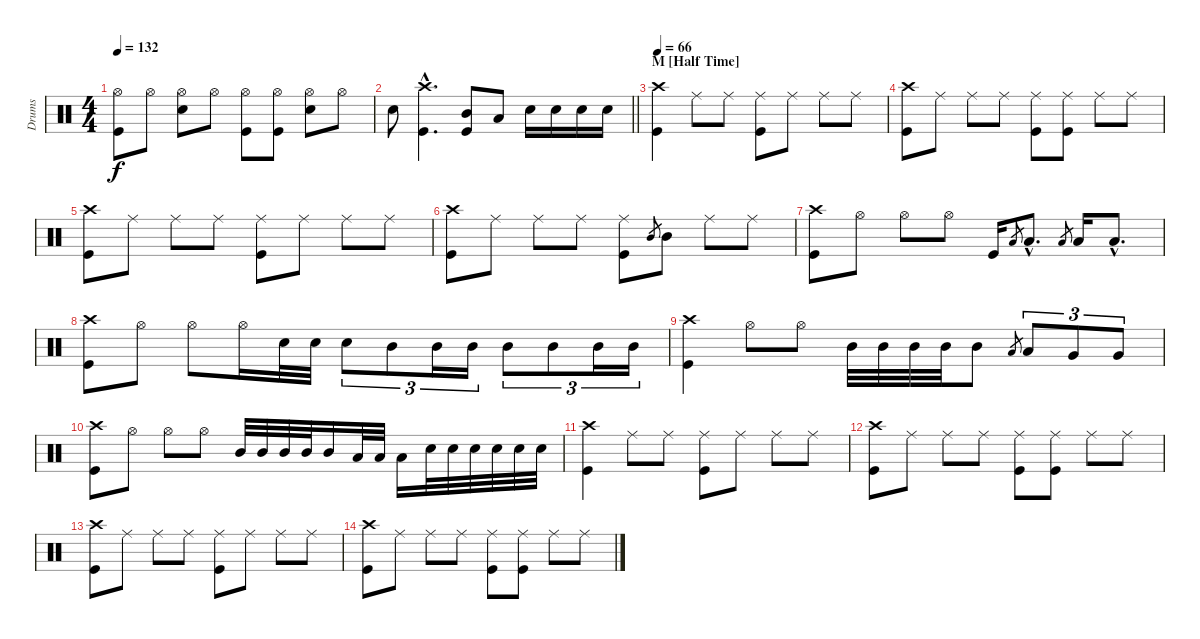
\track ("Drums" "Drums") {instrument percussion}
\staff {score}
\articulation defaults
\ts (4 4)
\tempo 132
\clef neutral
\ks c
("Hi-Hat (open)" "Kick (hit)").8{dy f} "Hi-Hat (open)".8 ("Hi-Hat (open)" "Electric Snare (hit)").8 "Hi-Hat (open)".8 ("Hi-Hat (open)" "Kick (hit)").8 ("Hi-Hat (open)" "Kick (hit)").8 ("Hi-Hat (open)" "Electric Snare (hit)").8 "Hi-Hat (open)".8 |
\barLineRight lightlight "Electric Snare (hit)".8
("Crash high (hit)"{hac} "Kick (hit)"{hac}).4{d} ("Mid Tom (hit)" "Kick (hit)").8 "Low Tom (hit)".8 "Electric Snare (hit)".16 "Electric Snare (hit)".16 "Electric Snare (hit)".16 "Electric Snare (hit)".16 |
\section ("" "M [Half Time]")
\tempo 66
("Crash high (hit)" "Kick (hit)").4 "Ride (middle)".8 "Ride (middle)".8 ("Ride (middle)" "Kick (hit)").8 "Ride (middle)".8 "Ride (middle)".8 "Ride (middle)".8 |
("Crash high (hit)" "Kick (hit)").8 "Ride (middle)".8 "Ride (middle)".8 "Ride (middle)".8 ("Ride (middle)" "Kick (hit)").8 ("Ride (middle)" "Kick (hit)").8 "Ride (middle)".8 "Ride (middle)".8 |
("Crash high (hit)" "Kick (hit)").8 "Ride (middle)".8 "Ride (middle)".8 "Ride (middle)".8 ("Ride (middle)" "Kick (hit)").8 "Ride (middle)".8 "Ride (middle)".8 "Ride (middle)".8 |
("Crash high (hit)" "Kick (hit)").8 "Ride (middle)".8 "Ride (middle)".8 "Ride (middle)".8 ("Ride (middle)" "Kick (hit)").8 "Mid Tom (hit)".8{gr} "Mid Tom (hit)".8 "Ride (middle)".8 "Ride (middle)".8 |
("Crash high (hit)" "Kick (hit)").8 "Hi-Hat (open)".8 "Hi-Hat (open)".8 "Hi-Hat (open)".8 "Kick (hit)".16 "Low Tom (hit)".8{gr} "Low Tom (hit)"{hac}.8{d} "Low Floor Tom (hit)".8{gr} "Low Floor Tom (hit)".16 "Low Floor Tom (hit)"{hac}.8{d} |
("Crash high (hit)" "Kick (hit)").8 "Hi-Hat (open)".8 "Hi-Hat (open)".8 "Hi-Hat (open)".16 "Electric Snare (hit)".32 "Electric Snare (hit)".32 "Electric Snare (hit)".8{tu (3 2)} "Mid Tom (hit)".8{tu (3 2)} "Mid Tom (hit)".16{tu (3 2)} "Mid Tom (hit)".16{tu (3 2)} "Mid Tom (hit)".8{tu (3 2)} "Mid Tom (hit)".8{tu (3 2)} "Mid Tom (hit)".16{tu (3 2)} "Mid Tom (hit)".16{tu (3 2)} |
("Crash high (hit)" "Kick (hit)").4 "Hi-Hat (open)".8 "Hi-Hat (open)".8 "Mid Tom (hit)".32 "Mid Tom (hit)".32 "Mid Tom (hit)".32 "Mid Tom (hit)".32 "Mid Tom (hit)".8 "Low Tom (hit)".8{gr} "Low Tom (hit)".8{tu (3 2)} "Very Low Tom (hit)".8{tu (3 2)} "Very Low Tom (hit)".8{tu (3 2)} |
("Crash high (hit)" "Kick (hit)").8 "Hi-Hat (open)".8 "Hi-Hat (open)".8 "Hi-Hat (open)".8 "Mid Tom (hit)".32 "Mid Tom (hit)".32 "Mid Tom (hit)".32 "Mid Tom (hit)".32 "Mid Tom (hit)".16 "Low Tom (hit)".32 "Low Tom (hit)".32 "Low Tom (hit)".16 "Electric Snare (hit)".32 "Electric Snare (hit)".32 "Electric Snare (hit)".32 "Electric Snare (hit)".32 "Electric Snare (hit)".32 "Electric Snare (hit)".32 |
("Crash high (hit)" "Kick (hit)").4 "Ride (middle)".8 "Ride (middle)".8 ("Ride (middle)" "Kick (hit)").8 "Ride (middle)".8 "Ride (middle)".8 "Ride (middle)".8 |
("Crash high (hit)" "Kick (hit)").8 "Ride (middle)".8 "Ride (middle)".8 "Ride (middle)".8 ("Ride (middle)" "Kick (hit)").8 ("Ride (middle)" "Kick (hit)").8 "Ride (middle)".8 "Ride (middle)".8 |
("Crash high (hit)" "Kick (hit)").8 "Ride (middle)".8 "Ride (middle)".8 "Ride (middle)".8 ("Ride (middle)" "Kick (hit)").8 "Ride (middle)".8 "Ride (middle)".8 "Ride (middle)".8 |
("Crash high (hit)" "Kick (hit)").8 "Ride (middle)".8 "Ride (middle)".8 "Ride (middle)".8 ("Ride (middle)" "Kick (hit)").8 ("Ride (middle)" "Kick (hit)").8 "Ride (middle)".8 "Ride (middle)".8
